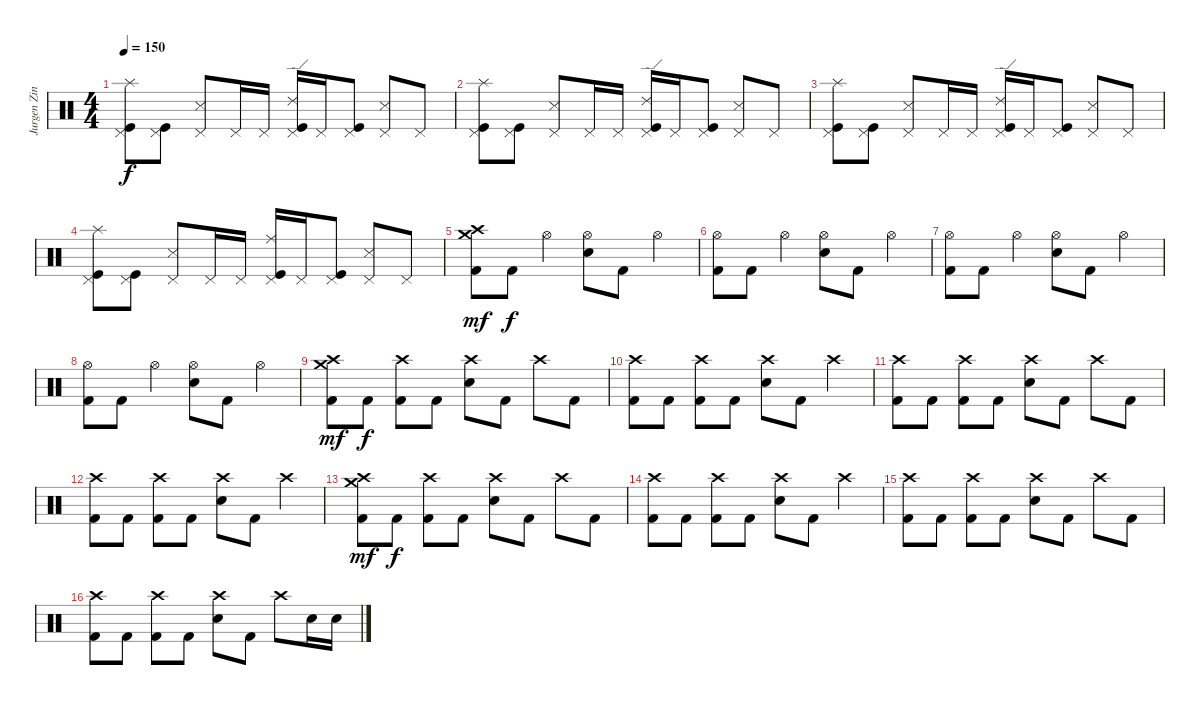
\track ("Jurgen Zing" "Jurgen Zin") {instrument percussion}
\staff {score}
\articulation defaults
\ts (4 4)
\tempo 150
\clef neutral
\ks c
("Splash (hit)" "Pedal Hi-Hat (hit)" "Kick (hit)").8{dy f} ("Pedal Hi-Hat (hit)" "Kick (hit)").8 ("Pedal Hi-Hat (hit)" "Metronome (hit)").8 "Pedal Hi-Hat (hit)".16 "Pedal Hi-Hat (hit)".16 ("Ride (edge) 2" "Pedal Hi-Hat (hit)" "Kick (hit)").16 "Pedal Hi-Hat (hit)".16 ("Pedal Hi-Hat (hit)" "Kick (hit)").8 ("Pedal Hi-Hat (hit)" "Metronome (hit)").8 "Pedal Hi-Hat (hit)".8 |
("Splash (hit)" "Pedal Hi-Hat (hit)" "Kick (hit)").8 ("Pedal Hi-Hat (hit)" "Kick (hit)").8 ("Pedal Hi-Hat (hit)" "Metronome (hit)").8 "Pedal Hi-Hat (hit)".16 "Pedal Hi-Hat (hit)".16 ("Ride (edge) 2" "Pedal Hi-Hat (hit)" "Kick (hit)").16 "Pedal Hi-Hat (hit)".16 ("Pedal Hi-Hat (hit)" "Kick (hit)").8 ("Pedal Hi-Hat (hit)" "Metronome (hit)").8 "Pedal Hi-Hat (hit)".8 |
("Splash (hit)" "Pedal Hi-Hat (hit)" "Kick (hit)").8 ("Pedal Hi-Hat (hit)" "Kick (hit)").8 ("Pedal Hi-Hat (hit)" "Metronome (hit)").8 "Pedal Hi-Hat (hit)".16 "Pedal Hi-Hat (hit)".16 ("Ride (edge) 2" "Pedal Hi-Hat (hit)" "Kick (hit)").16 "Pedal Hi-Hat (hit)".16 ("Pedal Hi-Hat (hit)" "Kick (hit)").8 ("Pedal Hi-Hat (hit)" "Metronome (hit)").8 "Pedal Hi-Hat (hit)".8 |
("Splash (hit)" "Pedal Hi-Hat (hit)" "Kick (hit)").8 ("Pedal Hi-Hat (hit)" "Kick (hit)").8 ("Pedal Hi-Hat (hit)" "Metronome (hit)").8 "Pedal Hi-Hat (hit)".16 "Pedal Hi-Hat (hit)".16 ("Ride (middle)" "Pedal Hi-Hat (hit)" "Kick (hit)").16 "Pedal Hi-Hat (hit)".16 ("Pedal Hi-Hat (hit)" "Kick (hit)").8 ("Pedal Hi-Hat (hit)" "Metronome (hit)").8 "Pedal Hi-Hat (hit)".8 |
("Crash medium (hit)" "Crash high (hit)" "Kick (hit) 2").8{dy mf volume 15} "Kick (hit) 2".8{dy f} "Hi-Hat (open)".4 ("Hi-Hat (open)" "Electric Snare (hit)").8 "Kick (hit) 2".8 "Hi-Hat (open)".4 |
("Hi-Hat (open)" "Kick (hit) 2").8 "Kick (hit) 2".8 "Hi-Hat (open)".4 ("Hi-Hat (open)" "Electric Snare (hit)").8 "Kick (hit) 2".8 "Hi-Hat (open)".4 |
("Hi-Hat (open)" "Kick (hit) 2").8 "Kick (hit) 2".8 "Hi-Hat (open)".4 ("Hi-Hat (open)" "Electric Snare (hit)").8 "Kick (hit) 2".8 "Hi-Hat (open)".4 |
("Hi-Hat (open)" "Kick (hit) 2").8 "Kick (hit) 2".8 "Hi-Hat (open)".4 ("Hi-Hat (open)" "Electric Snare (hit)").8 "Kick (hit) 2".8 "Hi-Hat (open)".4 |
("Crash medium (hit)" "Crash high (hit)" "Kick (hit) 2").8{dy mf} "Kick (hit) 2".8{dy f} ("Crash high (hit)" "Kick (hit) 2").8 "Kick (hit) 2".8 ("Crash high (hit)" "Electric Snare (hit)").8 "Kick (hit) 2".8 "Crash high (hit)".8 "Kick (hit) 2".8 |
("Crash high (hit)" "Kick (hit) 2").8 "Kick (hit) 2".8 ("Crash high (hit)" "Kick (hit) 2").8 "Kick (hit) 2".8 ("Crash high (hit)" "Electric Snare (hit)").8 "Kick (hit) 2".8 "Crash high (hit)".4 |
("Crash high (hit)" "Kick (hit) 2").8 "Kick (hit) 2".8 ("Crash high (hit)" "Kick (hit) 2").8 "Kick (hit) 2".8 ("Crash high (hit)" "Electric Snare (hit)").8 "Kick (hit) 2".8 "Crash high (hit)".8 "Kick (hit) 2".8 |
("Crash high (hit)" "Kick (hit) 2").8 "Kick (hit) 2".8 ("Crash high (hit)" "Kick (hit) 2").8 "Kick (hit) 2".8 ("Crash high (hit)" "Electric Snare (hit)").8 "Kick (hit) 2".8 "Crash high (hit)".4 |
("Crash medium (hit)" "Crash high (hit)" "Kick (hit) 2").8{dy mf} "Kick (hit) 2".8{dy f} ("Crash high (hit)" "Kick (hit) 2").8 "Kick (hit) 2".8 ("Crash high (hit)" "Electric Snare (hit)").8 "Kick (hit) 2".8 "Crash high (hit)".8 "Kick (hit) 2".8 |
("Crash high (hit)" "Kick (hit) 2").8 "Kick (hit) 2".8 ("Crash high (hit)" "Kick (hit) 2").8 "Kick (hit) 2".8 ("Crash high (hit)" "Electric Snare (hit)").8 "Kick (hit) 2".8 "Crash high (hit)".4 |
("Crash high (hit)" "Kick (hit) 2").8 "Kick (hit) 2".8 ("Crash high (hit)" "Kick (hit) 2").8 "Kick (hit) 2".8 ("Crash high (hit)" "Electric Snare (hit)").8 "Kick (hit) 2".8 "Crash high (hit)".8 "Kick (hit) 2".8 |
("Crash high (hit)" "Kick (hit) 2").8 "Kick (hit) 2".8 ("Crash high (hit)" "Kick (hit) 2").8 "Kick (hit) 2".8 ("Crash high (hit)" "Electric Snare (hit)").8 "Kick (hit) 2".8 "Crash high (hit)".8 "Electric Snare (hit)".16 "Electric Snare (hit)".16
